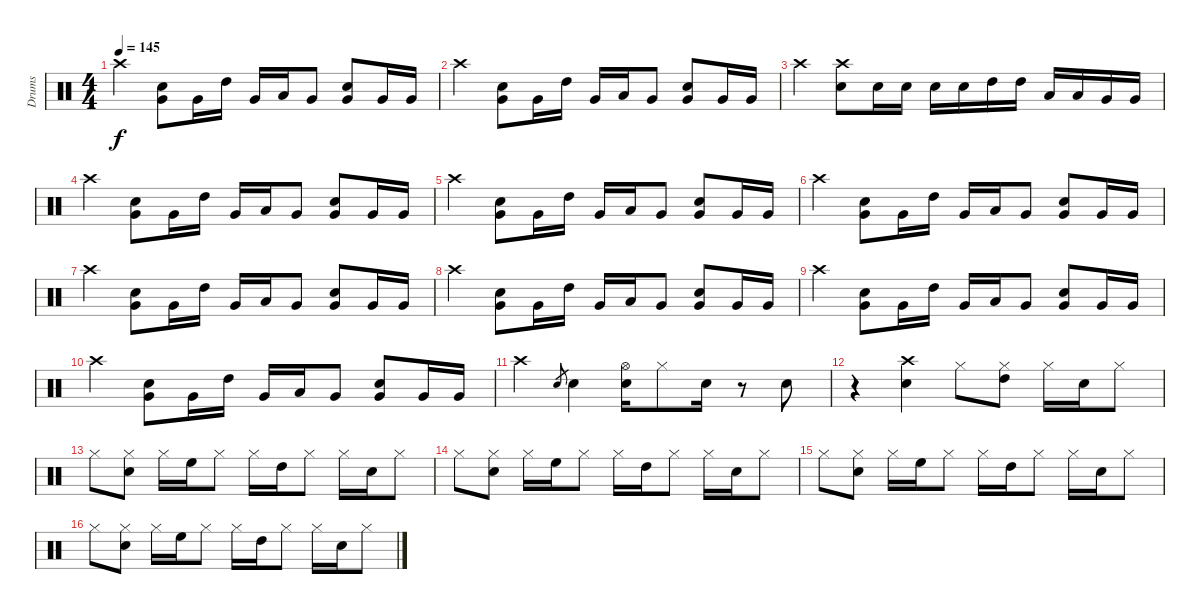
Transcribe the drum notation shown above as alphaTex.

\track ("Drums" "Drums") {instrument percussion}
\staff {score}
\articulation defaults
\ts (4 4)
\tempo 145
\clef neutral
\ks c "Crash high (hit)".4{dy f}
("Snare (hit) 2" "Very Low Tom (hit)").8 "Very Low Tom (hit)".16 "High Tom (hit)".16 "Very Low Tom (hit)".16 "Low Tom (hit)".16 "Very Low Tom (hit)".8 ("Snare (hit) 2" "Very Low Tom (hit)").8 "Very Low Tom (hit)".16 "Very Low Tom (hit)".16 |
"Crash high (hit)".4 ("Snare (hit) 2" "Very Low Tom (hit)").8 "Very Low Tom (hit)".16 "High Tom (hit)".16 "Very Low Tom (hit)".16 "Low Tom (hit)".16 "Very Low Tom (hit)".8 ("Snare (hit) 2" "Very Low Tom (hit)").8 "Very Low Tom (hit)".16 "Very Low Tom (hit)".16 |
"Crash high (hit)".4 ("Crash high (hit)" "Snare (hit) 2").8 "Snare (hit) 2".16 "Snare (hit) 2".16 "Snare (hit) 2".16 "Snare (hit) 2".16 "High Tom (hit)".16 "High Tom (hit)".16 "Low Tom (hit)".16 "Low Tom (hit)".16 "Very Low Tom (hit)".16 "Very Low Tom (hit)".16 |
"Crash high (hit)".4 ("Snare (hit) 2" "Very Low Tom (hit)").8 "Very Low Tom (hit)".16 "High Tom (hit)".16 "Very Low Tom (hit)".16 "Low Tom (hit)".16 "Very Low Tom (hit)".8 ("Snare (hit) 2" "Very Low Tom (hit)").8 "Very Low Tom (hit)".16 "Very Low Tom (hit)".16 |
"Crash high (hit)".4 ("Snare (hit) 2" "Very Low Tom (hit)").8 "Very Low Tom (hit)".16 "High Tom (hit)".16 "Very Low Tom (hit)".16 "Low Tom (hit)".16 "Very Low Tom (hit)".8 ("Snare (hit) 2" "Very Low Tom (hit)").8 "Very Low Tom (hit)".16 "Very Low Tom (hit)".16 |
"Crash high (hit)".4 ("Snare (hit) 2" "Very Low Tom (hit)").8 "Very Low Tom (hit)".16 "High Tom (hit)".16 "Very Low Tom (hit)".16 "Low Tom (hit)".16 "Very Low Tom (hit)".8 ("Snare (hit) 2" "Very Low Tom (hit)").8 "Very Low Tom (hit)".16 "Very Low Tom (hit)".16 |
"Crash high (hit)".4 ("Snare (hit) 2" "Very Low Tom (hit)").8 "Very Low Tom (hit)".16 "High Tom (hit)".16 "Very Low Tom (hit)".16 "Low Tom (hit)".16 "Very Low Tom (hit)".8 ("Snare (hit) 2" "Very Low Tom (hit)").8 "Very Low Tom (hit)".16 "Very Low Tom (hit)".16 |
"Crash high (hit)".4 ("Snare (hit) 2" "Very Low Tom (hit)").8 "Very Low Tom (hit)".16 "High Tom (hit)".16 "Very Low Tom (hit)".16 "Low Tom (hit)".16 "Very Low Tom (hit)".8 ("Snare (hit) 2" "Very Low Tom (hit)").8 "Very Low Tom (hit)".16 "Very Low Tom (hit)".16 |
"Crash high (hit)".4 ("Snare (hit) 2" "Very Low Tom (hit)").8 "Very Low Tom (hit)".16 "High Tom (hit)".16 "Very Low Tom (hit)".16 "Low Tom (hit)".16 "Very Low Tom (hit)".8 ("Snare (hit) 2" "Very Low Tom (hit)").8 "Very Low Tom (hit)".16 "Very Low Tom (hit)".16 |
"Crash high (hit)".4 ("Snare (hit) 2" "Very Low Tom (hit)").8 "Very Low Tom (hit)".16 "High Tom (hit)".16 "Very Low Tom (hit)".16 "Low Tom (hit)".16 "Very Low Tom (hit)".8 ("Snare (hit) 2" "Very Low Tom (hit)").8 "Very Low Tom (hit)".16 "Very Low Tom (hit)".16 |
"Crash high (hit)".4 "Snare (hit) 2".8{gr} "Snare (hit) 2".4 ("Hi-Hat (open)" "Snare (hit) 2").16 "Hi-Hat (closed)".8 "Snare (hit) 2".16 r.8 "Snare (hit) 2".8 |
r.4 ("Crash high (hit)" "Snare (hit) 2").4 "Hi-Hat (closed)".8 ("Hi-Hat (closed)" "High Tom (hit)").8 "Hi-Hat (closed)".16 "Snare (hit) 2".16 "Hi-Hat (closed)".8 |
"Hi-Hat (closed)".8 ("Hi-Hat (closed)" "Snare (hit) 2").8 "Hi-Hat (closed)".16 "High Floor Tom (hit)".16 "Hi-Hat (closed)".8 "Hi-Hat (closed)".16 "High Tom (hit)".16 "Hi-Hat (closed)".8 "Hi-Hat (closed)".16 "Snare (hit) 2".16 "Hi-Hat (closed)".8 |
"Hi-Hat (closed)".8 ("Hi-Hat (closed)" "Snare (hit) 2").8 "Hi-Hat (closed)".16 "High Floor Tom (hit)".16 "Hi-Hat (closed)".8 "Hi-Hat (closed)".16 "High Tom (hit)".16 "Hi-Hat (closed)".8 "Hi-Hat (closed)".16 "Snare (hit) 2".16 "Hi-Hat (closed)".8 |
"Hi-Hat (closed)".8 ("Hi-Hat (closed)" "Snare (hit) 2").8 "Hi-Hat (closed)".16 "High Floor Tom (hit)".16 "Hi-Hat (closed)".8 "Hi-Hat (closed)".16 "High Tom (hit)".16 "Hi-Hat (closed)".8 "Hi-Hat (closed)".16 "Snare (hit) 2".16 "Hi-Hat (closed)".8 |
"Hi-Hat (closed)".8 ("Hi-Hat (closed)" "Snare (hit) 2").8 "Hi-Hat (closed)".16 "High Floor Tom (hit)".16 "Hi-Hat (closed)".8 "Hi-Hat (closed)".16 "High Tom (hit)".16 "Hi-Hat (closed)".8 "Hi-Hat (closed)".16 "Snare (hit) 2".16 "Hi-Hat (closed)".8
